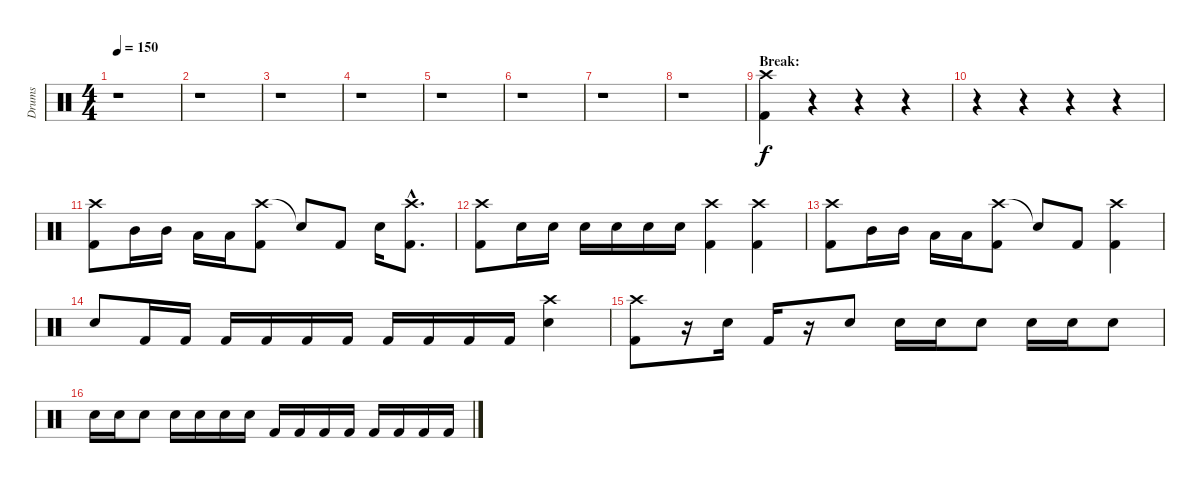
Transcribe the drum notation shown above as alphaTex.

\track ("Drums" "Drums") {instrument percussion}
\staff {score}
\articulation defaults
\ts (4 4)
\tempo 150
\clef neutral
\ks c
r.1{dy f} |
r.1 |
r.1 |
r.1 |
r.1 |
r.1 |
r.1 |
r.1 |
\section ("" "Break:")
("Crash high (hit)" "Kick (hit) 2").4 r.4 r.4 r.4 |
r.4 r.4 r.4 r.4 |
("Crash high (hit)" "Kick (hit) 2").8 "Mid Tom (hit)".16 "Mid Tom (hit)".16 "Low Tom (hit)".16 "Low Tom (hit)".16 ("Crash high (hit)" "Kick (hit) 2").8 "Snare (hit)"{t}.8 "Kick (hit) 2".8 "Electric Snare (hit)".16 ("Crash high (hit)"{hac} "Kick (hit) 2"{hac}).8{d} |
("Crash high (hit)" "Kick (hit) 2").8 "Electric Snare (hit)".16 "Electric Snare (hit)".16 "Electric Snare (hit)".16 "Electric Snare (hit)".16 "Electric Snare (hit)".16 "Electric Snare (hit)".16 ("Crash high (hit)" "Kick (hit) 2").4 ("Crash high (hit)" "Kick (hit) 2").4 |
("Crash high (hit)" "Kick (hit) 2").8 "Mid Tom (hit)".16 "Mid Tom (hit)".16 "Low Tom (hit)".16 "Low Tom (hit)".16 ("Crash high (hit)" "Kick (hit) 2").8 "Snare (hit)"{t}.8 "Kick (hit) 2".8 ("Crash high (hit)" "Kick (hit) 2").4 |
"Electric Snare (hit)".8 "Kick (hit) 2".16 "Kick (hit) 2".16 "Kick (hit) 2".16 "Kick (hit) 2".16 "Kick (hit) 2".16 "Kick (hit) 2".16 "Kick (hit) 2".16 "Kick (hit) 2".16 "Kick (hit) 2".16 "Kick (hit) 2".16 ("Crash high (hit)" "Electric Snare (hit)").4 |
("Crash high (hit)" "Kick (hit) 2").8 r.16 "Electric Snare (hit)".16 "Kick (hit) 2".16 r.16 "Electric Snare (hit)".8 "Electric Snare (hit)".16 "Electric Snare (hit)".16 "Electric Snare (hit)".8 "Electric Snare (hit)".16 "Electric Snare (hit)".16 "Electric Snare (hit)".8 |
"Electric Snare (hit)".16 "Electric Snare (hit)".16 "Electric Snare (hit)".8 "Electric Snare (hit)".16 "Electric Snare (hit)".16 "Electric Snare (hit)".16 "Electric Snare (hit)".16 "Kick (hit) 2".16 "Kick (hit) 2".16 "Kick (hit) 2".16 "Kick (hit) 2".16 "Kick (hit) 2".16 "Kick (hit) 2".16 "Kick (hit) 2".16 "Kick (hit) 2".16
